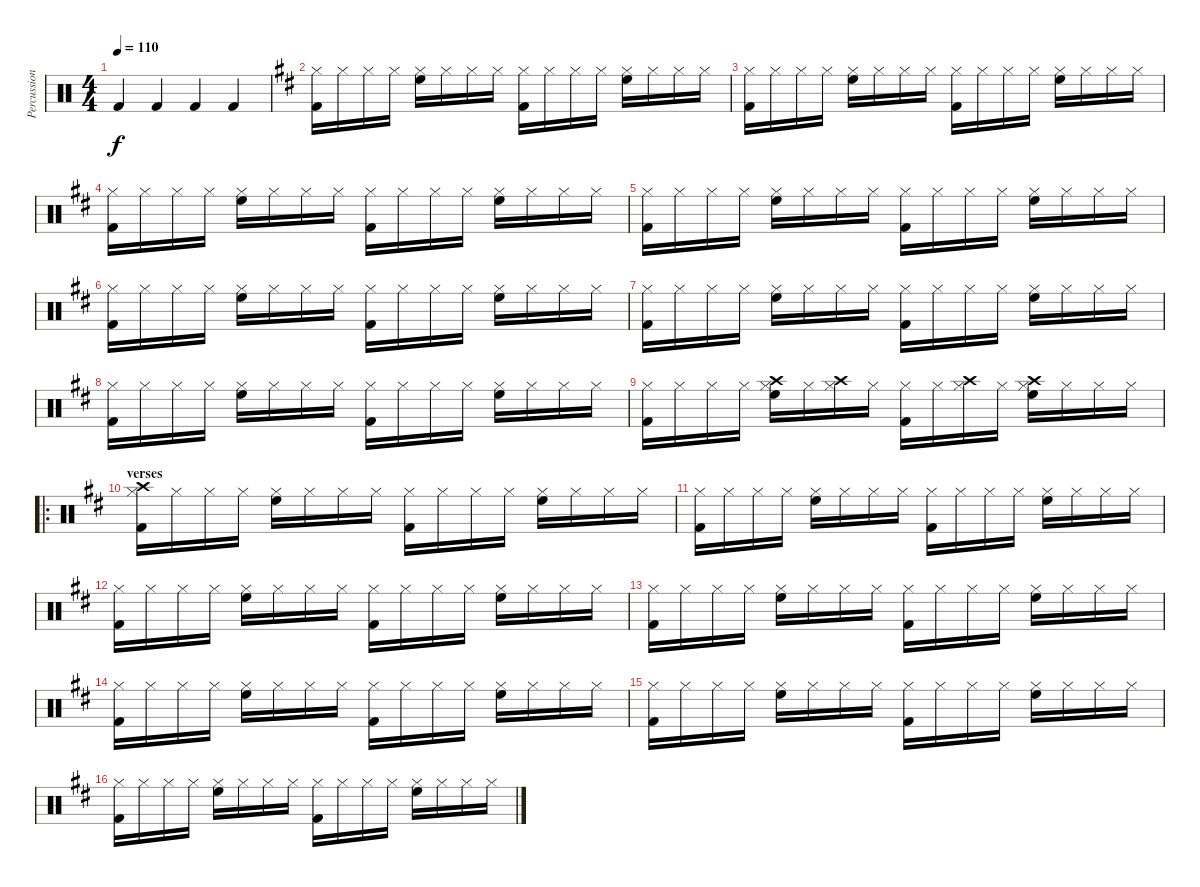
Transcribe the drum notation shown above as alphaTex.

\track ("Percussions" "Percussion") {instrument percussion}
\staff {score}
\articulation defaults
\ts (4 4)
\tempo 110
\clef neutral
\ks c "Kick (hit) 2".4{dy f} "Kick (hit) 2".4 "Kick (hit) 2".4 "Kick (hit) 2".4
|
\ks d
("Hi-Hat (closed)" "Kick (hit) 2").16 "Hi-Hat (closed)".16 "Hi-Hat (closed)".16 "Hi-Hat (closed)".16 ("Hi-Hat (closed)" "High Floor Tom (hit)").16 "Hi-Hat (closed)".16 "Hi-Hat (closed)".16 "Hi-Hat (closed)".16 ("Hi-Hat (closed)" "Kick (hit) 2").16 "Hi-Hat (closed)".16 "Hi-Hat (closed)".16 "Hi-Hat (closed)".16 ("Hi-Hat (closed)" "High Floor Tom (hit)").16 "Hi-Hat (closed)".16 "Hi-Hat (closed)".16 "Hi-Hat (closed)".16 |
("Hi-Hat (closed)" "Kick (hit) 2").16 "Hi-Hat (closed)".16 "Hi-Hat (closed)".16 "Hi-Hat (closed)".16 ("Hi-Hat (closed)" "High Floor Tom (hit)").16 "Hi-Hat (closed)".16 "Hi-Hat (closed)".16 "Hi-Hat (closed)".16 ("Hi-Hat (closed)" "Kick (hit) 2").16 "Hi-Hat (closed)".16 "Hi-Hat (closed)".16 "Hi-Hat (closed)".16 ("Hi-Hat (closed)" "High Floor Tom (hit)").16 "Hi-Hat (closed)".16 "Hi-Hat (closed)".16 "Hi-Hat (closed)".16 |
("Hi-Hat (closed)" "Kick (hit) 2").16 "Hi-Hat (closed)".16 "Hi-Hat (closed)".16 "Hi-Hat (closed)".16 ("Hi-Hat (closed)" "High Floor Tom (hit)").16 "Hi-Hat (closed)".16 "Hi-Hat (closed)".16 "Hi-Hat (closed)".16 ("Hi-Hat (closed)" "Kick (hit) 2").16 "Hi-Hat (closed)".16 "Hi-Hat (closed)".16 "Hi-Hat (closed)".16 ("Hi-Hat (closed)" "High Floor Tom (hit)").16 "Hi-Hat (closed)".16 "Hi-Hat (closed)".16 "Hi-Hat (closed)".16 |
("Hi-Hat (closed)" "Kick (hit) 2").16 "Hi-Hat (closed)".16 "Hi-Hat (closed)".16 "Hi-Hat (closed)".16 ("Hi-Hat (closed)" "High Floor Tom (hit)").16 "Hi-Hat (closed)".16 "Hi-Hat (closed)".16 "Hi-Hat (closed)".16 ("Hi-Hat (closed)" "Kick (hit) 2").16 "Hi-Hat (closed)".16 "Hi-Hat (closed)".16 "Hi-Hat (closed)".16 ("Hi-Hat (closed)" "High Floor Tom (hit)").16 "Hi-Hat (closed)".16 "Hi-Hat (closed)".16 "Hi-Hat (closed)".16 |
("Hi-Hat (closed)" "Kick (hit) 2").16 "Hi-Hat (closed)".16 "Hi-Hat (closed)".16 "Hi-Hat (closed)".16 ("Hi-Hat (closed)" "High Floor Tom (hit)").16 "Hi-Hat (closed)".16 "Hi-Hat (closed)".16 "Hi-Hat (closed)".16 ("Hi-Hat (closed)" "Kick (hit) 2").16 "Hi-Hat (closed)".16 "Hi-Hat (closed)".16 "Hi-Hat (closed)".16 ("Hi-Hat (closed)" "High Floor Tom (hit)").16 "Hi-Hat (closed)".16 "Hi-Hat (closed)".16 "Hi-Hat (closed)".16 |
("Hi-Hat (closed)" "Kick (hit) 2").16 "Hi-Hat (closed)".16 "Hi-Hat (closed)".16 "Hi-Hat (closed)".16 ("Hi-Hat (closed)" "High Floor Tom (hit)").16 "Hi-Hat (closed)".16 "Hi-Hat (closed)".16 "Hi-Hat (closed)".16 ("Hi-Hat (closed)" "Kick (hit) 2").16 "Hi-Hat (closed)".16 "Hi-Hat (closed)".16 "Hi-Hat (closed)".16 ("Hi-Hat (closed)" "High Floor Tom (hit)").16 "Hi-Hat (closed)".16 "Hi-Hat (closed)".16 "Hi-Hat (closed)".16 |
("Hi-Hat (closed)" "Kick (hit) 2").16 "Hi-Hat (closed)".16 "Hi-Hat (closed)".16 "Hi-Hat (closed)".16 ("Hi-Hat (closed)" "High Floor Tom (hit)").16 "Hi-Hat (closed)".16 "Hi-Hat (closed)".16 "Hi-Hat (closed)".16 ("Hi-Hat (closed)" "Kick (hit) 2").16 "Hi-Hat (closed)".16 "Hi-Hat (closed)".16 "Hi-Hat (closed)".16 ("Hi-Hat (closed)" "High Floor Tom (hit)").16 "Hi-Hat (closed)".16 "Hi-Hat (closed)".16 "Hi-Hat (closed)".16 |
("Hi-Hat (closed)" "Kick (hit) 2").16 "Hi-Hat (closed)".16 "Hi-Hat (closed)".16 "Hi-Hat (closed)".16 ("Hi-Hat (closed)" "High Floor Tom (hit)" "Crash high (hit)").16 "Hi-Hat (closed)".16 ("Hi-Hat (closed)" "Crash high (hit)").16 "Hi-Hat (closed)".16 ("Hi-Hat (closed)" "Kick (hit) 2").16 "Hi-Hat (closed)".16 ("Hi-Hat (closed)" "Crash high (hit)").16 "Hi-Hat (closed)".16 ("Hi-Hat (closed)" "High Floor Tom (hit)" "Crash high (hit)").16 "Hi-Hat (closed)".16 "Hi-Hat (closed)".16 "Hi-Hat (closed)".16 |
\ro
\section ("" "verses")
("Hi-Hat (closed)" "Kick (hit) 2" "Crash high (hit)").16 "Hi-Hat (closed)".16 "Hi-Hat (closed)".16 "Hi-Hat (closed)".16 ("Hi-Hat (closed)" "High Floor Tom (hit)").16 "Hi-Hat (closed)".16 "Hi-Hat (closed)".16 "Hi-Hat (closed)".16 ("Hi-Hat (closed)" "Kick (hit) 2").16 "Hi-Hat (closed)".16 "Hi-Hat (closed)".16 "Hi-Hat (closed)".16 ("Hi-Hat (closed)" "High Floor Tom (hit)").16 "Hi-Hat (closed)".16 "Hi-Hat (closed)".16 "Hi-Hat (closed)".16 |
("Hi-Hat (closed)" "Kick (hit) 2").16 "Hi-Hat (closed)".16 "Hi-Hat (closed)".16 "Hi-Hat (closed)".16 ("Hi-Hat (closed)" "High Floor Tom (hit)").16 "Hi-Hat (closed)".16 "Hi-Hat (closed)".16 "Hi-Hat (closed)".16 ("Hi-Hat (closed)" "Kick (hit) 2").16 "Hi-Hat (closed)".16 "Hi-Hat (closed)".16 "Hi-Hat (closed)".16 ("Hi-Hat (closed)" "High Floor Tom (hit)").16 "Hi-Hat (closed)".16 "Hi-Hat (closed)".16 "Hi-Hat (closed)".16 |
("Hi-Hat (closed)" "Kick (hit) 2").16 "Hi-Hat (closed)".16 "Hi-Hat (closed)".16 "Hi-Hat (closed)".16 ("Hi-Hat (closed)" "High Floor Tom (hit)").16 "Hi-Hat (closed)".16 "Hi-Hat (closed)".16 "Hi-Hat (closed)".16 ("Hi-Hat (closed)" "Kick (hit) 2").16 "Hi-Hat (closed)".16 "Hi-Hat (closed)".16 "Hi-Hat (closed)".16 ("Hi-Hat (closed)" "High Floor Tom (hit)").16 "Hi-Hat (closed)".16 "Hi-Hat (closed)".16 "Hi-Hat (closed)".16 |
("Hi-Hat (closed)" "Kick (hit) 2").16 "Hi-Hat (closed)".16 "Hi-Hat (closed)".16 "Hi-Hat (closed)".16 ("Hi-Hat (closed)" "High Floor Tom (hit)").16 "Hi-Hat (closed)".16 "Hi-Hat (closed)".16 "Hi-Hat (closed)".16 ("Hi-Hat (closed)" "Kick (hit) 2").16 "Hi-Hat (closed)".16 "Hi-Hat (closed)".16 "Hi-Hat (closed)".16 ("Hi-Hat (closed)" "High Floor Tom (hit)").16 "Hi-Hat (closed)".16 "Hi-Hat (closed)".16 "Hi-Hat (closed)".16 |
("Hi-Hat (closed)" "Kick (hit) 2").16 "Hi-Hat (closed)".16 "Hi-Hat (closed)".16 "Hi-Hat (closed)".16 ("Hi-Hat (closed)" "High Floor Tom (hit)").16 "Hi-Hat (closed)".16 "Hi-Hat (closed)".16 "Hi-Hat (closed)".16 ("Hi-Hat (closed)" "Kick (hit) 2").16 "Hi-Hat (closed)".16 "Hi-Hat (closed)".16 "Hi-Hat (closed)".16 ("Hi-Hat (closed)" "High Floor Tom (hit)").16 "Hi-Hat (closed)".16 "Hi-Hat (closed)".16 "Hi-Hat (closed)".16 |
("Hi-Hat (closed)" "Kick (hit) 2").16 "Hi-Hat (closed)".16 "Hi-Hat (closed)".16 "Hi-Hat (closed)".16 ("Hi-Hat (closed)" "High Floor Tom (hit)").16 "Hi-Hat (closed)".16 "Hi-Hat (closed)".16 "Hi-Hat (closed)".16 ("Hi-Hat (closed)" "Kick (hit) 2").16 "Hi-Hat (closed)".16 "Hi-Hat (closed)".16 "Hi-Hat (closed)".16 ("Hi-Hat (closed)" "High Floor Tom (hit)").16 "Hi-Hat (closed)".16 "Hi-Hat (closed)".16 "Hi-Hat (closed)".16 |
("Hi-Hat (closed)" "Kick (hit) 2").16 "Hi-Hat (closed)".16 "Hi-Hat (closed)".16 "Hi-Hat (closed)".16 ("Hi-Hat (closed)" "High Floor Tom (hit)").16 "Hi-Hat (closed)".16 "Hi-Hat (closed)".16 "Hi-Hat (closed)".16 ("Hi-Hat (closed)" "Kick (hit) 2").16 "Hi-Hat (closed)".16 "Hi-Hat (closed)".16 "Hi-Hat (closed)".16 ("Hi-Hat (closed)" "High Floor Tom (hit)").16 "Hi-Hat (closed)".16 "Hi-Hat (closed)".16 "Hi-Hat (closed)".16
